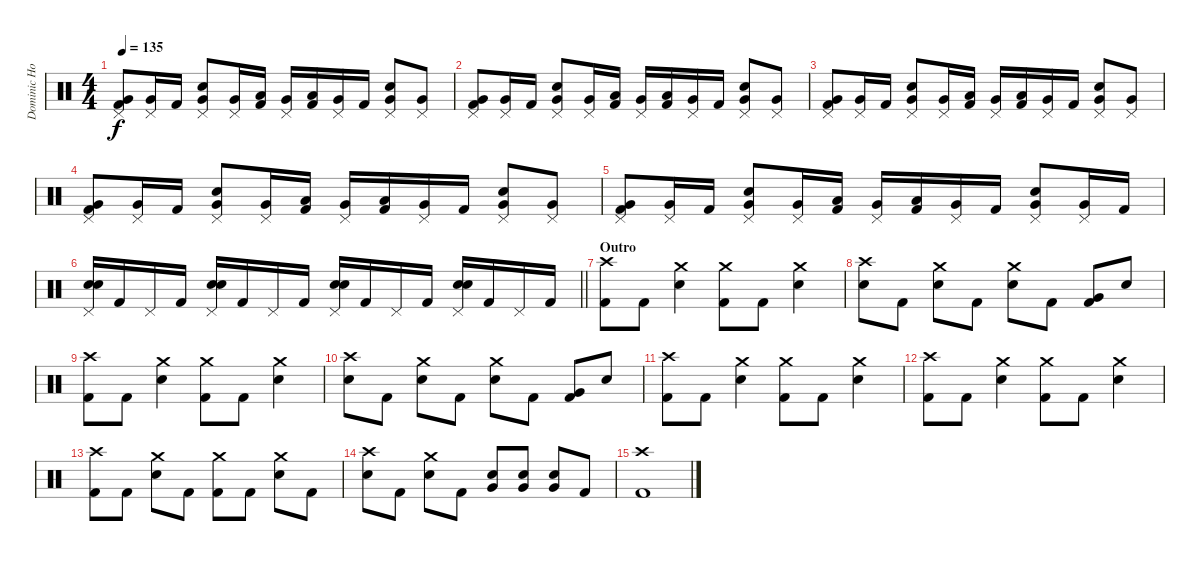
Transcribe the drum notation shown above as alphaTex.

\track ("Dominic Howard (Drums)" "Dominic Ho") {instrument percussion}
\staff {score}
\articulation defaults
\ts (4 4)
\tempo 135
\clef neutral
\ks c
("Kick (hit) 2" "Very Low Tom (hit)" "Pedal Hi-Hat (hit)").8{dy f} ("Very Low Tom (hit)" "Pedal Hi-Hat (hit)").16 "Kick (hit) 2".16 ("Electric Snare (hit)" "Very Low Tom (hit)" "Pedal Hi-Hat (hit)").8 ("Very Low Tom (hit)" "Pedal Hi-Hat (hit)").16 ("Kick (hit) 2" "Low Tom (hit)").16 ("Very Low Tom (hit)" "Pedal Hi-Hat (hit)").16 ("Kick (hit) 2" "Low Tom (hit)").16 ("Very Low Tom (hit)" "Pedal Hi-Hat (hit)").16 "Kick (hit) 2".16 ("Electric Snare (hit)" "Very Low Tom (hit)" "Pedal Hi-Hat (hit)").8 ("Very Low Tom (hit)" "Pedal Hi-Hat (hit)").8 |
("Kick (hit) 2" "Very Low Tom (hit)" "Pedal Hi-Hat (hit)").8 ("Very Low Tom (hit)" "Pedal Hi-Hat (hit)").16 "Kick (hit) 2".16 ("Electric Snare (hit)" "Very Low Tom (hit)" "Pedal Hi-Hat (hit)").8 ("Very Low Tom (hit)" "Pedal Hi-Hat (hit)").16 ("Kick (hit) 2" "Low Tom (hit)").16 ("Very Low Tom (hit)" "Pedal Hi-Hat (hit)").16 ("Kick (hit) 2" "Low Tom (hit)").16 ("Very Low Tom (hit)" "Pedal Hi-Hat (hit)").16 "Kick (hit) 2".16 ("Electric Snare (hit)" "Very Low Tom (hit)" "Pedal Hi-Hat (hit)").8 ("Very Low Tom (hit)" "Pedal Hi-Hat (hit)").8 |
("Kick (hit) 2" "Very Low Tom (hit)" "Pedal Hi-Hat (hit)").8 ("Very Low Tom (hit)" "Pedal Hi-Hat (hit)").16 "Kick (hit) 2".16 ("Electric Snare (hit)" "Very Low Tom (hit)" "Pedal Hi-Hat (hit)").8 ("Very Low Tom (hit)" "Pedal Hi-Hat (hit)").16 ("Kick (hit) 2" "Low Tom (hit)").16 ("Very Low Tom (hit)" "Pedal Hi-Hat (hit)").16 ("Kick (hit) 2" "Low Tom (hit)").16 ("Very Low Tom (hit)" "Pedal Hi-Hat (hit)").16 "Kick (hit) 2".16 ("Electric Snare (hit)" "Very Low Tom (hit)" "Pedal Hi-Hat (hit)").8 ("Very Low Tom (hit)" "Pedal Hi-Hat (hit)").8 |
("Kick (hit) 2" "Very Low Tom (hit)" "Pedal Hi-Hat (hit)").8 ("Very Low Tom (hit)" "Pedal Hi-Hat (hit)").16 "Kick (hit) 2".16 ("Electric Snare (hit)" "Very Low Tom (hit)" "Pedal Hi-Hat (hit)").8 ("Very Low Tom (hit)" "Pedal Hi-Hat (hit)").16 ("Kick (hit) 2" "Low Tom (hit)").16 ("Very Low Tom (hit)" "Pedal Hi-Hat (hit)").16 ("Kick (hit) 2" "Low Tom (hit)").16 ("Very Low Tom (hit)" "Pedal Hi-Hat (hit)").16 "Kick (hit) 2".16 ("Electric Snare (hit)" "Very Low Tom (hit)" "Pedal Hi-Hat (hit)").8 ("Very Low Tom (hit)" "Pedal Hi-Hat (hit)").8 |
("Kick (hit) 2" "Very Low Tom (hit)" "Pedal Hi-Hat (hit)").8 ("Very Low Tom (hit)" "Pedal Hi-Hat (hit)").16 "Kick (hit) 2".16 ("Electric Snare (hit)" "Very Low Tom (hit)" "Pedal Hi-Hat (hit)").8 ("Very Low Tom (hit)" "Pedal Hi-Hat (hit)").16 ("Kick (hit) 2" "Low Tom (hit)").16 ("Very Low Tom (hit)" "Pedal Hi-Hat (hit)").16 ("Kick (hit) 2" "Low Tom (hit)").16 ("Very Low Tom (hit)" "Pedal Hi-Hat (hit)").16 "Kick (hit) 2".16 ("Electric Snare (hit)" "Very Low Tom (hit)" "Pedal Hi-Hat (hit)").8 ("Very Low Tom (hit)" "Pedal Hi-Hat (hit)").16 "Kick (hit) 2".16 |
\barLineRight lightlight
("Electric Snare (hit)" "Electric Snare (hit)" "Pedal Hi-Hat (hit)").16 "Kick (hit) 2".16 "Pedal Hi-Hat (hit)".16 "Kick (hit) 2".16 ("Electric Snare (hit)" "Electric Snare (hit)" "Pedal Hi-Hat (hit)").16 "Kick (hit) 2".16 "Pedal Hi-Hat (hit)".16 "Kick (hit) 2".16 ("Electric Snare (hit)" "Electric Snare (hit)" "Pedal Hi-Hat (hit)").16 "Kick (hit) 2".16 "Pedal Hi-Hat (hit)".16 "Kick (hit) 2".16 ("Electric Snare (hit)" "Electric Snare (hit)" "Pedal Hi-Hat (hit)").16 "Kick (hit) 2".16 "Pedal Hi-Hat (hit)".16 "Kick (hit) 2".16 |
\section ("" "Outro")
("Crash high (hit)" "Kick (hit) 2").8 "Kick (hit) 2".8 ("Crash medium (hit)" "Electric Snare (hit)").4 ("Crash medium (hit)" "Kick (hit) 2").8 "Kick (hit) 2".8 ("Crash medium (hit)" "Electric Snare (hit)").4 |
("Crash high (hit)" "Electric Snare (hit)").8 "Kick (hit) 2".8 ("Crash medium (hit)" "Electric Snare (hit)").8 "Kick (hit) 2".8 ("Crash medium (hit)" "Electric Snare (hit)").8 "Kick (hit) 2".8 ("Kick (hit) 2" "Very Low Tom (hit)").8 "Electric Snare (hit)".8 |
("Crash high (hit)" "Kick (hit) 2").8 "Kick (hit) 2".8 ("Crash medium (hit)" "Electric Snare (hit)").4 ("Crash medium (hit)" "Kick (hit) 2").8 "Kick (hit) 2".8 ("Crash medium (hit)" "Electric Snare (hit)").4 |
("Crash high (hit)" "Electric Snare (hit)").8 "Kick (hit) 2".8 ("Crash medium (hit)" "Electric Snare (hit)").8 "Kick (hit) 2".8 ("Crash medium (hit)" "Electric Snare (hit)").8 "Kick (hit) 2".8 ("Kick (hit) 2" "Very Low Tom (hit)").8 "Electric Snare (hit)".8 |
("Crash high (hit)" "Kick (hit) 2").8 "Kick (hit) 2".8 ("Crash medium (hit)" "Electric Snare (hit)").4 ("Crash medium (hit)" "Kick (hit) 2").8 "Kick (hit) 2".8 ("Crash medium (hit)" "Electric Snare (hit)").4 |
("Crash high (hit)" "Kick (hit) 2").8 "Kick (hit) 2".8 ("Crash medium (hit)" "Electric Snare (hit)").4 ("Crash medium (hit)" "Kick (hit) 2").8 "Kick (hit) 2".8 ("Crash medium (hit)" "Electric Snare (hit)").4 |
("Crash high (hit)" "Kick (hit) 2").8 "Kick (hit) 2".8 ("Crash medium (hit)" "Electric Snare (hit)").8 "Kick (hit) 2".8 ("Crash medium (hit)" "Kick (hit) 2").8 "Kick (hit) 2".8 ("Crash medium (hit)" "Electric Snare (hit)").8 "Kick (hit) 2".8 |
("Crash high (hit)" "Electric Snare (hit)").8 "Kick (hit) 2".8 ("Crash medium (hit)" "Electric Snare (hit)").8 "Kick (hit) 2".8 ("Electric Snare (hit)" "Very Low Tom (hit)").8 ("Electric Snare (hit)" "Very Low Tom (hit)").8 ("Electric Snare (hit)" "Very Low Tom (hit)").8 "Kick (hit) 2".8 |
("Crash high (hit)" "Kick (hit) 2").1
